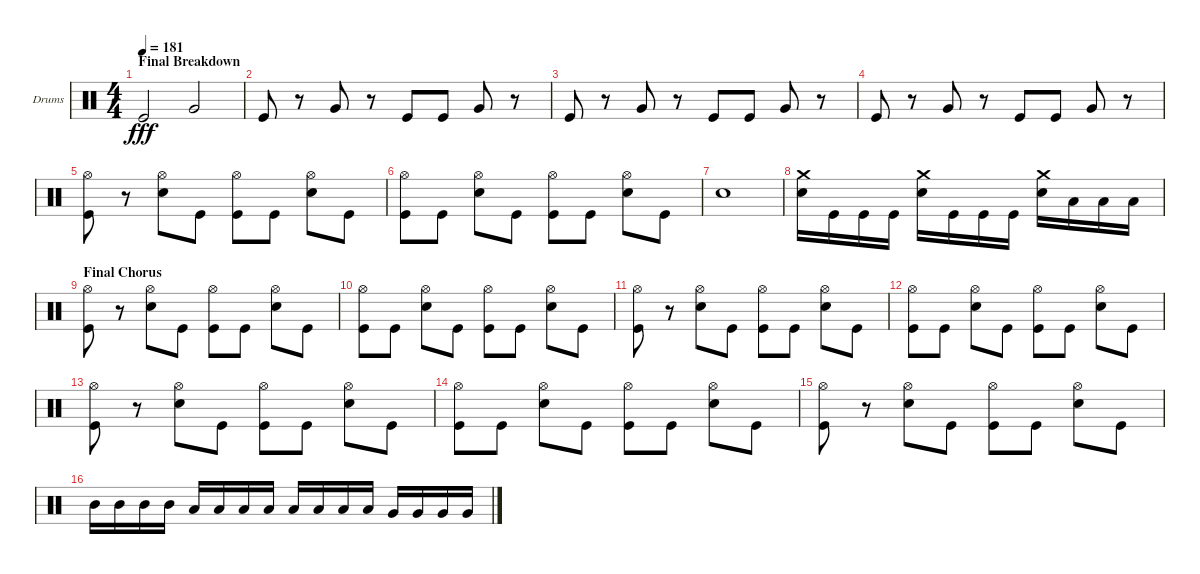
\bracketExtendMode groupsimilarinstruments
\firstSystemTrackNameOrientation horizontal
\otherSystemsTrackNameOrientation horizontal
\track ("Drumkit" "Drums") {solo instrument percussion}
\staff {score}
\articulation defaults
\ts (4 4)
\section ("" "Final Breakdown")
\tempo 181
\clef neutral
\scale
0.333333
\ks c "Kick (hit)".2{dy fff} "Very Low Tom (hit)".2
|
\scale
0.333333 "Kick (hit)".8 r.8 "Very Low Tom (hit)".8 r.8 "Kick (hit)".8 "Kick (hit)".8 "Very Low Tom (hit)".8 r.8 |
\scale
0.333333 "Kick (hit)".8 r.8 "Very Low Tom (hit)".8 r.8 "Kick (hit)".8 "Kick (hit)".8 "Very Low Tom (hit)".8 r.8 |
\scale
0.333333 "Kick (hit)".8 r.8 "Very Low Tom (hit)".8 r.8 "Kick (hit)".8 "Kick (hit)".8 "Very Low Tom (hit)".8 r.8 |
\scale
0.333333 ("Kick (hit)" "Hi-Hat (open)").8 r.8 ("Hi-Hat (open)" "Snare (hit) 2").8 "Kick (hit)".8 ("Kick (hit)" "Hi-Hat (open)").8 "Kick (hit)".8 ("Hi-Hat (open)" "Snare (hit) 2").8 "Kick (hit)".8 |
\scale
0.333333 ("Kick (hit)" "Hi-Hat (open)").8 "Kick (hit)".8 ("Hi-Hat (open)" "Snare (hit) 2").8 "Kick (hit)".8 ("Kick (hit)" "Hi-Hat (open)").8 "Kick (hit)".8 ("Hi-Hat (open)" "Snare (hit) 2").8 "Kick (hit)".8 |
\scale
0.333333 "Snare (hit) 2".1 |
\scale
0.333333 ("Snare (hit) 2" "Crash medium (hit)").16 "Kick (hit)".16 "Kick (hit)".16 "Kick (hit)".16 ("Snare (hit) 2" "Crash medium (hit)").16 "Kick (hit)".16 "Kick (hit)".16 "Kick (hit)".16 ("Snare (hit) 2" "Crash medium (hit)").16 "Low Tom (hit)".16 "Low Tom (hit)".16 "Low Tom (hit)".16 |
\section ("" "Final Chorus")
\scale
0.333333 ("Kick (hit)" "Hi-Hat (open)").8 r.8 ("Hi-Hat (open)" "Snare (hit) 2").8 "Kick (hit)".8 ("Kick (hit)" "Hi-Hat (open)").8 "Kick (hit)".8 ("Hi-Hat (open)" "Snare (hit) 2").8 "Kick (hit)".8 |
\scale
0.333333 ("Kick (hit)" "Hi-Hat (open)").8 "Kick (hit)".8 ("Hi-Hat (open)" "Snare (hit) 2").8 "Kick (hit)".8 ("Kick (hit)" "Hi-Hat (open)").8 "Kick (hit)".8 ("Hi-Hat (open)" "Snare (hit) 2").8 "Kick (hit)".8 |
\scale
0.333333 ("Kick (hit)" "Hi-Hat (open)").8 r.8 ("Hi-Hat (open)" "Snare (hit) 2").8 "Kick (hit)".8 ("Kick (hit)" "Hi-Hat (open)").8 "Kick (hit)".8 ("Hi-Hat (open)" "Snare (hit) 2").8 "Kick (hit)".8 |
\scale
0.333333 ("Kick (hit)" "Hi-Hat (open)").8 "Kick (hit)".8 ("Hi-Hat (open)" "Snare (hit) 2").8 "Kick (hit)".8 ("Kick (hit)" "Hi-Hat (open)").8 "Kick (hit)".8 ("Hi-Hat (open)" "Snare (hit) 2").8 "Kick (hit)".8 |
\scale
0.333333 ("Kick (hit)" "Hi-Hat (open)").8 r.8 ("Hi-Hat (open)" "Snare (hit) 2").8 "Kick (hit)".8 ("Kick (hit)" "Hi-Hat (open)").8 "Kick (hit)".8 ("Hi-Hat (open)" "Snare (hit) 2").8 "Kick (hit)".8 |
\scale
0.333333 ("Kick (hit)" "Hi-Hat (open)").8 "Kick (hit)".8 ("Hi-Hat (open)" "Snare (hit) 2").8 "Kick (hit)".8 ("Kick (hit)" "Hi-Hat (open)").8 "Kick (hit)".8 ("Hi-Hat (open)" "Snare (hit) 2").8 "Kick (hit)".8 |
\scale
0.333333 ("Kick (hit)" "Hi-Hat (open)").8 r.8 ("Hi-Hat (open)" "Snare (hit) 2").8 "Kick (hit)".8 ("Kick (hit)" "Hi-Hat (open)").8 "Kick (hit)".8 ("Hi-Hat (open)" "Snare (hit) 2").8 "Kick (hit)".8 |
\scale
0.333333 "Mid Tom (hit)".16 "Mid Tom (hit)".16 "Mid Tom (hit)".16 "Mid Tom (hit)".16 "Low Tom (hit)".16 "Low Tom (hit)".16 "Low Tom (hit)".16 "Low Tom (hit)".16 "Low Tom (hit)".16 "Low Tom (hit)".16 "Low Tom (hit)".16 "Low Tom (hit)".16 "Very Low Tom (hit)".16 "Very Low Tom (hit)".16 "Very Low Tom (hit)".16 "Very Low Tom (hit)".16
